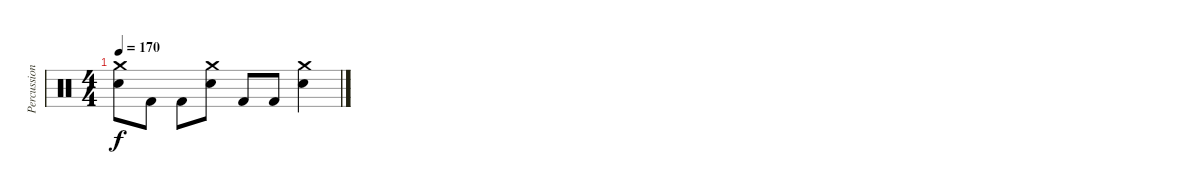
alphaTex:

\track ("Percussion" "Percussion") {instrument percussion}
\staff {score}
\articulation defaults
\ts (4 4)
\tempo 170
\clef neutral
\ks c
("Crash medium (hit)" "Electric Snare (hit)").8{dy f} "Kick (hit) 2".8 "Kick (hit) 2".8 ("Crash medium (hit)" "Electric Snare (hit)").8 "Kick (hit) 2".8 "Kick (hit) 2".8 ("Crash medium (hit)" "Electric Snare (hit)").4
